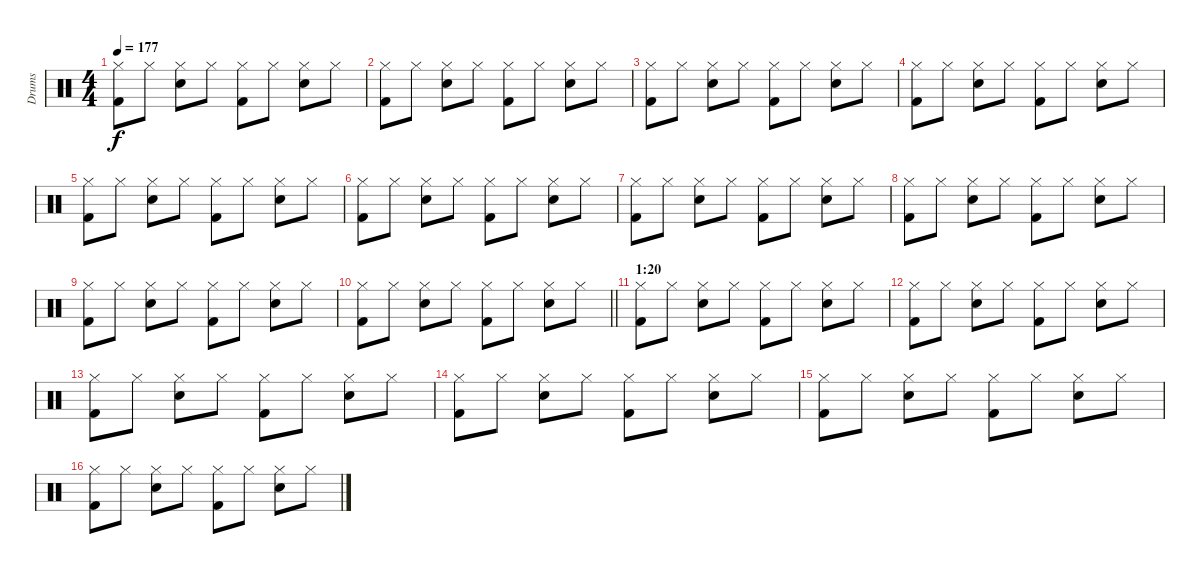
\track ("Drums" "Drums") {instrument percussion}
\staff {score}
\articulation defaults
\ts (4 4)
\tempo 177
\clef neutral
\ks c
("Hi-Hat (closed)" "Kick (hit) 2").8{dy f} "Hi-Hat (closed)".8 ("Hi-Hat (closed)" "Snare (hit) 2").8 "Hi-Hat (closed)".8 ("Hi-Hat (closed)" "Kick (hit) 2").8 "Hi-Hat (closed)".8 ("Hi-Hat (closed)" "Snare (hit) 2").8 "Hi-Hat (closed)".8 |
("Hi-Hat (closed)" "Kick (hit) 2").8 "Hi-Hat (closed)".8 ("Hi-Hat (closed)" "Snare (hit) 2").8 "Hi-Hat (closed)".8 ("Hi-Hat (closed)" "Kick (hit) 2").8 "Hi-Hat (closed)".8 ("Hi-Hat (closed)" "Snare (hit) 2").8 "Hi-Hat (closed)".8 |
("Hi-Hat (closed)" "Kick (hit) 2").8 "Hi-Hat (closed)".8 ("Hi-Hat (closed)" "Snare (hit) 2").8 "Hi-Hat (closed)".8 ("Hi-Hat (closed)" "Kick (hit) 2").8 "Hi-Hat (closed)".8 ("Hi-Hat (closed)" "Snare (hit) 2").8 "Hi-Hat (closed)".8 |
("Hi-Hat (closed)" "Kick (hit) 2").8 "Hi-Hat (closed)".8 ("Hi-Hat (closed)" "Snare (hit) 2").8 "Hi-Hat (closed)".8 ("Hi-Hat (closed)" "Kick (hit) 2").8 "Hi-Hat (closed)".8 ("Hi-Hat (closed)" "Snare (hit) 2").8 "Hi-Hat (closed)".8 |
("Hi-Hat (closed)" "Kick (hit) 2").8 "Hi-Hat (closed)".8 ("Hi-Hat (closed)" "Snare (hit) 2").8 "Hi-Hat (closed)".8 ("Hi-Hat (closed)" "Kick (hit) 2").8 "Hi-Hat (closed)".8 ("Hi-Hat (closed)" "Snare (hit) 2").8 "Hi-Hat (closed)".8 |
("Hi-Hat (closed)" "Kick (hit) 2").8 "Hi-Hat (closed)".8 ("Hi-Hat (closed)" "Snare (hit) 2").8 "Hi-Hat (closed)".8 ("Hi-Hat (closed)" "Kick (hit) 2").8 "Hi-Hat (closed)".8 ("Hi-Hat (closed)" "Snare (hit) 2").8 "Hi-Hat (closed)".8 |
("Hi-Hat (closed)" "Kick (hit) 2").8 "Hi-Hat (closed)".8 ("Hi-Hat (closed)" "Snare (hit) 2").8 "Hi-Hat (closed)".8 ("Hi-Hat (closed)" "Kick (hit) 2").8 "Hi-Hat (closed)".8 ("Hi-Hat (closed)" "Snare (hit) 2").8 "Hi-Hat (closed)".8 |
("Hi-Hat (closed)" "Kick (hit) 2").8 "Hi-Hat (closed)".8 ("Hi-Hat (closed)" "Snare (hit) 2").8 "Hi-Hat (closed)".8 ("Hi-Hat (closed)" "Kick (hit) 2").8 "Hi-Hat (closed)".8 ("Hi-Hat (closed)" "Snare (hit) 2").8 "Hi-Hat (closed)".8 |
("Hi-Hat (closed)" "Kick (hit) 2").8 "Hi-Hat (closed)".8 ("Hi-Hat (closed)" "Snare (hit) 2").8 "Hi-Hat (closed)".8 ("Hi-Hat (closed)" "Kick (hit) 2").8 "Hi-Hat (closed)".8 ("Hi-Hat (closed)" "Snare (hit) 2").8 "Hi-Hat (closed)".8 |
\barLineRight lightlight
("Hi-Hat (closed)" "Kick (hit) 2").8 "Hi-Hat (closed)".8 ("Hi-Hat (closed)" "Snare (hit) 2").8 "Hi-Hat (closed)".8 ("Hi-Hat (closed)" "Kick (hit) 2").8 "Hi-Hat (closed)".8 ("Hi-Hat (closed)" "Snare (hit) 2").8 "Hi-Hat (closed)".8 |
\section ("" "1:20")
("Hi-Hat (closed)" "Kick (hit) 2").8 "Hi-Hat (closed)".8 ("Hi-Hat (closed)" "Snare (hit) 2").8 "Hi-Hat (closed)".8 ("Hi-Hat (closed)" "Kick (hit) 2").8 "Hi-Hat (closed)".8 ("Hi-Hat (closed)" "Snare (hit) 2").8 "Hi-Hat (closed)".8 |
("Hi-Hat (closed)" "Kick (hit) 2").8 "Hi-Hat (closed)".8 ("Hi-Hat (closed)" "Snare (hit) 2").8 "Hi-Hat (closed)".8 ("Hi-Hat (closed)" "Kick (hit) 2").8 "Hi-Hat (closed)".8 ("Hi-Hat (closed)" "Snare (hit) 2").8 "Hi-Hat (closed)".8 |
("Hi-Hat (closed)" "Kick (hit) 2").8 "Hi-Hat (closed)".8 ("Hi-Hat (closed)" "Snare (hit) 2").8 "Hi-Hat (closed)".8 ("Hi-Hat (closed)" "Kick (hit) 2").8 "Hi-Hat (closed)".8 ("Hi-Hat (closed)" "Snare (hit) 2").8 "Hi-Hat (closed)".8 |
("Hi-Hat (closed)" "Kick (hit) 2").8 "Hi-Hat (closed)".8 ("Hi-Hat (closed)" "Snare (hit) 2").8 "Hi-Hat (closed)".8 ("Hi-Hat (closed)" "Kick (hit) 2").8 "Hi-Hat (closed)".8 ("Hi-Hat (closed)" "Snare (hit) 2").8 "Hi-Hat (closed)".8 |
("Hi-Hat (closed)" "Kick (hit) 2").8 "Hi-Hat (closed)".8 ("Hi-Hat (closed)" "Snare (hit) 2").8 "Hi-Hat (closed)".8 ("Hi-Hat (closed)" "Kick (hit) 2").8 "Hi-Hat (closed)".8 ("Hi-Hat (closed)" "Snare (hit) 2").8 "Hi-Hat (closed)".8 |
("Hi-Hat (closed)" "Kick (hit) 2").8 "Hi-Hat (closed)".8 ("Hi-Hat (closed)" "Snare (hit) 2").8 "Hi-Hat (closed)".8 ("Hi-Hat (closed)" "Kick (hit) 2").8 "Hi-Hat (closed)".8 ("Hi-Hat (closed)" "Snare (hit) 2").8 "Hi-Hat (closed)".8
